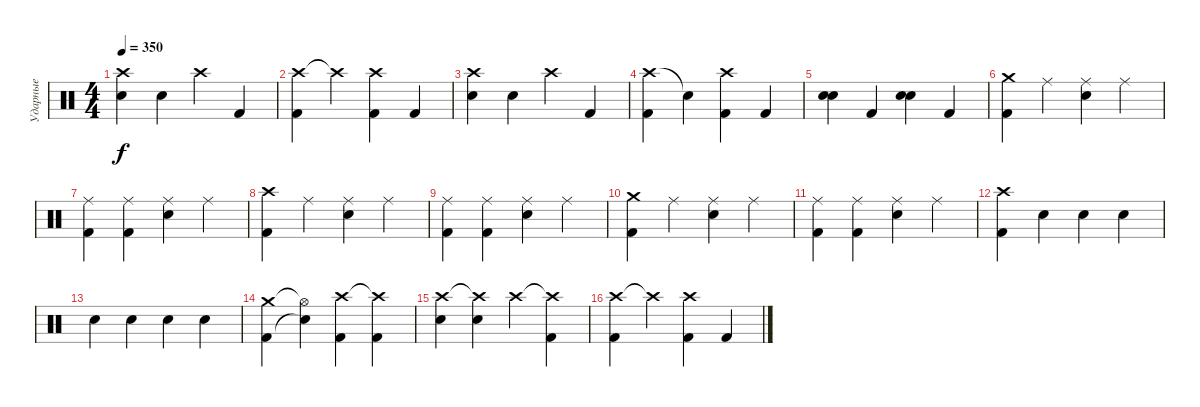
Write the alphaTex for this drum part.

\track ("Ударные" "Ударные") {instrument percussion}
\staff {score}
\articulation defaults
\ts (4 4)
\tempo 350
\clef neutral
\ks c
("Crash high (hit)" "Electric Snare (hit)").4{dy f} "Electric Snare (hit)".4 "Crash high (hit)".4 "Kick (hit) 2".4 |
("Crash high (hit)" "Kick (hit) 2").4 "Crash high (hit)"{t}.4 ("Crash high (hit)" "Kick (hit) 2").4 "Kick (hit) 2".4 |
("Crash high (hit)" "Electric Snare (hit)").4 "Electric Snare (hit)".4 "Crash high (hit)".4 "Kick (hit) 2".4 |
("Crash high (hit)" "Kick (hit) 2").4 "Snare (hit)"{t}.4 ("Crash high (hit)" "Kick (hit) 2").4 "Kick (hit) 2".4 |
("Electric Snare (hit)" "Electric Snare (hit)").4 "Kick (hit) 2".4 ("Electric Snare (hit)" "Electric Snare (hit)").4 "Kick (hit) 2".4 |
("Crash medium (hit)" "Kick (hit) 2").4 "Ride (middle)".4 ("Ride (middle)" "Electric Snare (hit)").4 "Ride (middle)".4 |
("Ride (middle)" "Kick (hit) 2").4 ("Ride (middle)" "Kick (hit) 2").4 ("Ride (middle)" "Electric Snare (hit)").4 "Ride (middle)".4 |
("Crash high (hit)" "Kick (hit) 2").4 "Ride (middle)".4 ("Ride (middle)" "Electric Snare (hit)").4 "Ride (middle)".4 |
("Ride (middle)" "Kick (hit) 2").4 ("Ride (middle)" "Kick (hit) 2").4 ("Ride (middle)" "Electric Snare (hit)").4 "Ride (middle)".4 |
("Crash medium (hit)" "Kick (hit) 2").4 "Ride (middle)".4 ("Ride (middle)" "Electric Snare (hit)").4 "Ride (middle)".4 |
("Ride (middle)" "Kick (hit) 2").4 ("Ride (middle)" "Kick (hit) 2").4 ("Ride (middle)" "Electric Snare (hit)").4 "Ride (middle)".4 |
("Crash high (hit)" "Kick (hit) 2").4 "Electric Snare (hit)".4 "Electric Snare (hit)".4 "Electric Snare (hit)".4 |
"Electric Snare (hit)".4 "Electric Snare (hit)".4 "Electric Snare (hit)".4 "Electric Snare (hit)".4 |
("Crash medium (hit)" "Kick (hit) 2").4 ("Hi-Hat (open)"{t} "Snare (hit)"{t}).4 ("Crash high (hit)" "Kick (hit) 2").4 ("Crash high (hit)"{t} "Kick (hit) 2").4 |
("Crash high (hit)" "Electric Snare (hit)").4 ("Crash high (hit)"{t} "Electric Snare (hit)").4 "Crash high (hit)".4 ("Crash high (hit)"{t} "Kick (hit) 2").4 |
("Crash high (hit)" "Kick (hit) 2").4 "Crash high (hit)"{t}.4 ("Crash high (hit)" "Kick (hit) 2").4 "Kick (hit) 2".4
